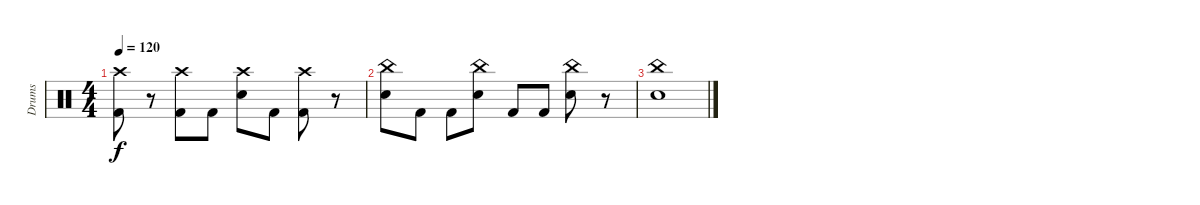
\track ("Drums" "Drums") {instrument percussion}
\staff {score}
\articulation defaults
\ts (4 4)
\tempo 120
\clef neutral
\ks c
("Kick (hit) 2" "Crash high (hit)").8{dy f} r.8 ("Kick (hit) 2" "Crash high (hit)").8 "Kick (hit) 2".8 ("Electric Snare (hit)" "Crash high (hit)").8 "Kick (hit) 2".8 ("Kick (hit) 2" "Crash high (hit)").8 r.8 |
("Electric Snare (hit)" "China (hit)").8 "Kick (hit) 2".8 "Kick (hit) 2".8 ("Electric Snare (hit)" "China (hit)").8 "Kick (hit) 2".8 "Kick (hit) 2".8 ("Electric Snare (hit)" "China (hit)").8 r.8 |
("Electric Snare (hit)" "China (hit)").1
